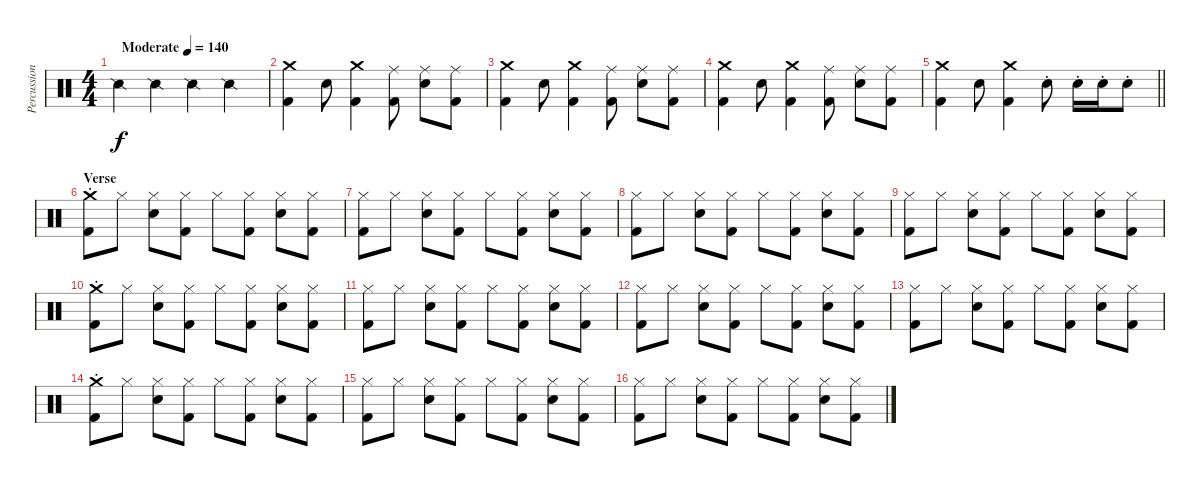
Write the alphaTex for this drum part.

\track ("Percussion" "Percussion") {instrument percussion}
\staff {score}
\articulation defaults
\ts (4 4)
\tempo (140 "Moderate")
\clef neutral
\ks c "Snare (side stick) 2".4{dy f} "Snare (side stick) 2".4 "Snare (side stick) 2".4 "Snare (side stick) 2".4
|
("Crash medium (hit)" "Kick (hit) 2").4 "Snare (hit) 2".8 ("Crash medium (hit)" "Kick (hit) 2").4 ("Ride (middle)" "Kick (hit) 2").8 ("Ride (middle)" "Snare (hit) 2").8 ("Ride (middle)" "Kick (hit) 2").8 |
("Crash medium (hit)" "Kick (hit) 2").4 "Snare (hit) 2".8 ("Crash medium (hit)" "Kick (hit) 2").4 ("Ride (middle)" "Kick (hit) 2").8 ("Ride (middle)" "Snare (hit) 2").8 ("Ride (middle)" "Kick (hit) 2").8 |
("Crash medium (hit)" "Kick (hit) 2").4 "Snare (hit) 2".8 ("Crash medium (hit)" "Kick (hit) 2").4 ("Ride (middle)" "Kick (hit) 2").8 ("Ride (middle)" "Snare (hit) 2").8 ("Ride (middle)" "Kick (hit) 2").8 |
\barLineRight lightlight
("Crash medium (hit)" "Kick (hit) 2").4 "Snare (hit) 2".8 ("Crash medium (hit)" "Kick (hit) 2").4 "Snare (hit) 2"{st}.8 "Snare (hit) 2"{st}.16 "Snare (hit) 2"{st}.16 "Snare (hit) 2"{st}.8 |
\section ("" "Verse")
("Crash medium (hit)"{st} "Kick (hit) 2").8 "Hi-Hat (closed)".8 ("Hi-Hat (closed)" "Snare (hit) 2").8 ("Hi-Hat (closed)" "Kick (hit) 2").8 "Hi-Hat (closed)".8 ("Hi-Hat (closed)" "Kick (hit) 2").8 ("Hi-Hat (closed)" "Snare (hit) 2").8 ("Hi-Hat (closed)" "Kick (hit) 2").8 |
("Hi-Hat (closed)" "Kick (hit) 2").8 "Hi-Hat (closed)".8 ("Hi-Hat (closed)" "Snare (hit) 2").8 ("Hi-Hat (closed)" "Kick (hit) 2").8 "Hi-Hat (closed)".8 ("Hi-Hat (closed)" "Kick (hit) 2").8 ("Hi-Hat (closed)" "Snare (hit) 2").8 ("Hi-Hat (closed)" "Kick (hit) 2").8 |
("Hi-Hat (closed)" "Kick (hit) 2").8 "Hi-Hat (closed)".8 ("Hi-Hat (closed)" "Snare (hit) 2").8 ("Hi-Hat (closed)" "Kick (hit) 2").8 "Hi-Hat (closed)".8 ("Hi-Hat (closed)" "Kick (hit) 2").8 ("Hi-Hat (closed)" "Snare (hit) 2").8 ("Hi-Hat (closed)" "Kick (hit) 2").8 |
("Hi-Hat (closed)" "Kick (hit) 2").8 "Hi-Hat (closed)".8 ("Hi-Hat (closed)" "Snare (hit) 2").8 ("Hi-Hat (closed)" "Kick (hit) 2").8 "Hi-Hat (closed)".8 ("Hi-Hat (closed)" "Kick (hit) 2").8 ("Hi-Hat (closed)" "Snare (hit) 2").8 ("Hi-Hat (closed)" "Kick (hit) 2").8 |
("Crash medium (hit)"{st} "Kick (hit) 2").8 "Hi-Hat (closed)".8 ("Hi-Hat (closed)" "Snare (hit) 2").8 ("Hi-Hat (closed)" "Kick (hit) 2").8 "Hi-Hat (closed)".8 ("Hi-Hat (closed)" "Kick (hit) 2").8 ("Hi-Hat (closed)" "Snare (hit) 2").8 ("Hi-Hat (closed)" "Kick (hit) 2").8 |
("Hi-Hat (closed)" "Kick (hit) 2").8 "Hi-Hat (closed)".8 ("Hi-Hat (closed)" "Snare (hit) 2").8 ("Hi-Hat (closed)" "Kick (hit) 2").8 "Hi-Hat (closed)".8 ("Hi-Hat (closed)" "Kick (hit) 2").8 ("Hi-Hat (closed)" "Snare (hit) 2").8 ("Hi-Hat (closed)" "Kick (hit) 2").8 |
("Hi-Hat (closed)" "Kick (hit) 2").8 "Hi-Hat (closed)".8 ("Hi-Hat (closed)" "Snare (hit) 2").8 ("Hi-Hat (closed)" "Kick (hit) 2").8 "Hi-Hat (closed)".8 ("Hi-Hat (closed)" "Kick (hit) 2").8 ("Hi-Hat (closed)" "Snare (hit) 2").8 ("Hi-Hat (closed)" "Kick (hit) 2").8 |
("Hi-Hat (closed)" "Kick (hit) 2").8 "Hi-Hat (closed)".8 ("Hi-Hat (closed)" "Snare (hit) 2").8 ("Hi-Hat (closed)" "Kick (hit) 2").8 "Hi-Hat (closed)".8 ("Hi-Hat (closed)" "Kick (hit) 2").8 ("Hi-Hat (closed)" "Snare (hit) 2").8 ("Hi-Hat (closed)" "Kick (hit) 2").8 |
("Crash medium (hit)"{st} "Kick (hit) 2").8 "Hi-Hat (closed)".8 ("Hi-Hat (closed)" "Snare (hit) 2").8 ("Hi-Hat (closed)" "Kick (hit) 2").8 "Hi-Hat (closed)".8 ("Hi-Hat (closed)" "Kick (hit) 2").8 ("Hi-Hat (closed)" "Snare (hit) 2").8 ("Hi-Hat (closed)" "Kick (hit) 2").8 |
("Hi-Hat (closed)" "Kick (hit) 2").8 "Hi-Hat (closed)".8 ("Hi-Hat (closed)" "Snare (hit) 2").8 ("Hi-Hat (closed)" "Kick (hit) 2").8 "Hi-Hat (closed)".8 ("Hi-Hat (closed)" "Kick (hit) 2").8 ("Hi-Hat (closed)" "Snare (hit) 2").8 ("Hi-Hat (closed)" "Kick (hit) 2").8 |
("Hi-Hat (closed)" "Kick (hit) 2").8 "Hi-Hat (closed)".8 ("Hi-Hat (closed)" "Snare (hit) 2").8 ("Hi-Hat (closed)" "Kick (hit) 2").8 "Hi-Hat (closed)".8 ("Hi-Hat (closed)" "Kick (hit) 2").8 ("Hi-Hat (closed)" "Snare (hit) 2").8 ("Hi-Hat (closed)" "Kick (hit) 2").8
